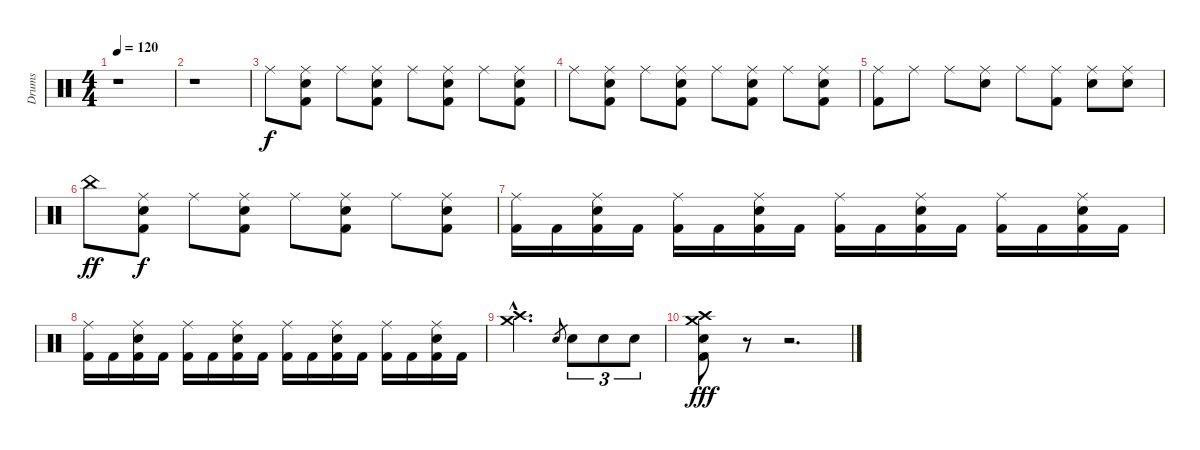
\track ("Drums" "Drums") {instrument percussion}
\staff {score}
\articulation defaults
\ts (4 4)
\tempo 120
\clef neutral
\ks c
r.1{dy f} |
r.1 |
"Ride (middle)".8{volume 12} ("Ride (middle)" "Electric Snare (hit)" "Kick (hit) 2").8 "Ride (middle)".8 ("Ride (middle)" "Electric Snare (hit)" "Kick (hit) 2").8 "Ride (middle)".8 ("Ride (middle)" "Electric Snare (hit)" "Kick (hit) 2").8 "Ride (middle)".8 ("Ride (middle)" "Electric Snare (hit)" "Kick (hit) 2").8 |
"Ride (middle)".8 ("Ride (middle)" "Electric Snare (hit)" "Kick (hit) 2").8 "Ride (middle)".8 ("Ride (middle)" "Electric Snare (hit)" "Kick (hit) 2").8 "Ride (middle)".8 ("Ride (middle)" "Electric Snare (hit)" "Kick (hit) 2").8 "Ride (middle)".8 ("Ride (middle)" "Electric Snare (hit)" "Kick (hit) 2").8 |
("Ride (middle)" "Kick (hit) 2").8 "Ride (middle)".8 "Ride (middle)".8 ("Ride (middle)" "Electric Snare (hit)").8 "Ride (middle)".8 ("Ride (middle)" "Kick (hit) 2").8 ("Ride (middle)" "Electric Snare (hit)").8 ("Ride (middle)" "Electric Snare (hit)").8 |
"China (hit)".8{dy ff} ("Ride (middle)" "Electric Snare (hit)" "Kick (hit) 2").8{dy f} "Ride (middle)".8 ("Ride (middle)" "Electric Snare (hit)" "Kick (hit) 2").8 "Ride (middle)".8 ("Ride (middle)" "Electric Snare (hit)" "Kick (hit) 2").8 "Ride (middle)".8 ("Ride (middle)" "Electric Snare (hit)" "Kick (hit) 2").8 |
("Ride (middle)" "Kick (hit) 2").16 "Kick (hit) 2".16 ("Ride (middle)" "Electric Snare (hit)" "Kick (hit) 2").16 "Kick (hit) 2".16 ("Ride (middle)" "Kick (hit) 2").16 "Kick (hit) 2".16 ("Ride (middle)" "Electric Snare (hit)" "Kick (hit) 2").16 "Kick (hit) 2".16 ("Ride (middle)" "Kick (hit) 2").16 "Kick (hit) 2".16 ("Ride (middle)" "Electric Snare (hit)" "Kick (hit) 2").16 "Kick (hit) 2".16 ("Ride (middle)" "Kick (hit) 2").16 "Kick (hit) 2".16 ("Ride (middle)" "Electric Snare (hit)" "Kick (hit) 2").16 "Kick (hit) 2".16 |
("Ride (middle)" "Kick (hit) 2").16 "Kick (hit) 2".16 ("Ride (middle)" "Electric Snare (hit)" "Kick (hit) 2").16 "Kick (hit) 2".16 ("Ride (middle)" "Kick (hit) 2").16 "Kick (hit) 2".16 ("Ride (middle)" "Electric Snare (hit)" "Kick (hit) 2").16 "Kick (hit) 2".16 ("Ride (middle)" "Kick (hit) 2").16 "Kick (hit) 2".16 ("Ride (middle)" "Electric Snare (hit)" "Kick (hit) 2").16 "Kick (hit) 2".16 ("Ride (middle)" "Kick (hit) 2").16 "Kick (hit) 2".16 ("Ride (middle)" "Electric Snare (hit)" "Kick (hit) 2").16 "Kick (hit) 2".16 |
("Crash medium (hit)"{hac} "Crash high (hit)"{hac}).2{d} "Electric Snare (hit)".8{gr} "Electric Snare (hit)".8{tu (3 2)} "Electric Snare (hit)".8{tu (3 2)} "Electric Snare (hit)".8{tu (3 2)} |
("Crash medium (hit)" "Crash high (hit)" "Electric Snare (hit)" "Kick (hit) 2").8{dy fff} r.8 r.2{d}
